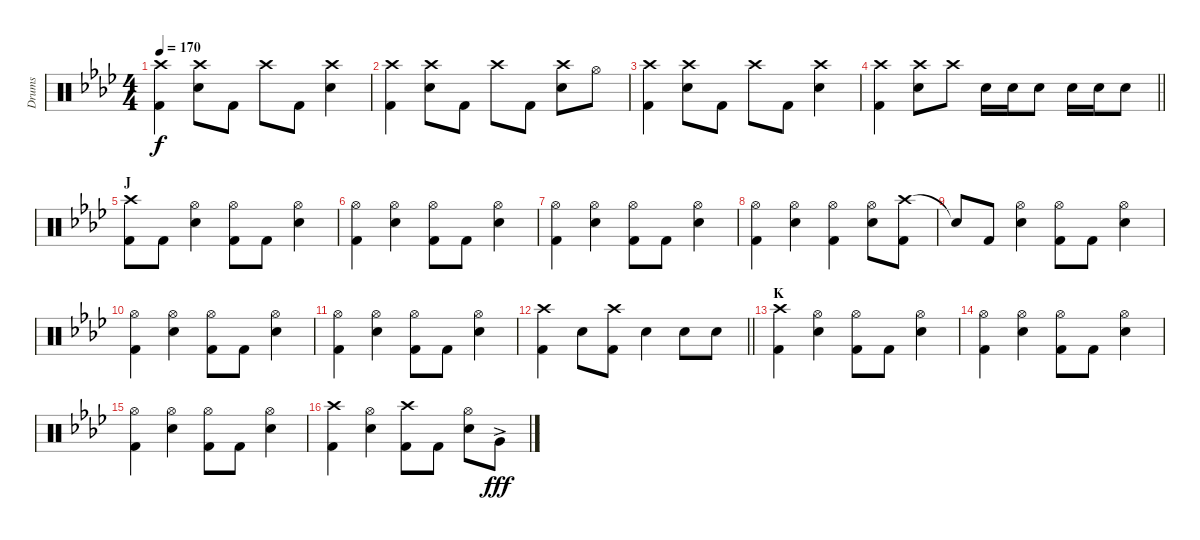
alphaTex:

\track ("Drums" "Drums") {instrument percussion}
\staff {score}
\articulation defaults
\ts (4 4)
\tempo 170
\clef neutral
\ks ab
("Crash high (hit)" "Kick (hit) 2").4{dy f} ("Crash high (hit)" "Snare (hit) 2").8 "Kick (hit) 2".8 "Crash high (hit)".8 "Kick (hit) 2".8 ("Crash high (hit)" "Snare (hit) 2").4 |
("Crash high (hit)" "Kick (hit) 2").4 ("Crash high (hit)" "Snare (hit) 2").8 "Kick (hit) 2".8 "Crash high (hit)".8 "Kick (hit) 2".8 ("Crash high (hit)" "Snare (hit) 2").8 "Hi-Hat (open)".8 |
("Crash high (hit)" "Kick (hit) 2").4 ("Crash high (hit)" "Snare (hit) 2").8 "Kick (hit) 2".8 "Crash high (hit)".8 "Kick (hit) 2".8 ("Crash high (hit)" "Snare (hit) 2").4 |
\barLineRight lightlight
("Crash high (hit)" "Kick (hit) 2").4 ("Crash high (hit)" "Snare (hit) 2").8 "Crash high (hit)".8 "Snare (hit) 2".16 "Snare (hit) 2".16 "Snare (hit) 2".8 "Snare (hit) 2".16 "Snare (hit) 2".16 "Snare (hit) 2".8 |
\section ("" "J")
("Crash high (hit)" "Kick (hit) 2").8 "Kick (hit) 2".8 ("Hi-Hat (open)" "Snare (hit) 2").4 ("Hi-Hat (open)" "Kick (hit) 2").8 "Kick (hit) 2".8 ("Hi-Hat (open)" "Snare (hit) 2").4 |
("Hi-Hat (open)" "Kick (hit) 2").4 ("Hi-Hat (open)" "Snare (hit) 2").4 ("Hi-Hat (open)" "Kick (hit) 2").8 "Kick (hit) 2".8 ("Hi-Hat (open)" "Snare (hit) 2").4 |
("Hi-Hat (open)" "Kick (hit) 2").4 ("Hi-Hat (open)" "Snare (hit) 2").4 ("Hi-Hat (open)" "Kick (hit) 2").8 "Kick (hit) 2".8 ("Hi-Hat (open)" "Snare (hit) 2").4 |
("Hi-Hat (open)" "Kick (hit) 2").4 ("Hi-Hat (open)" "Snare (hit) 2").4 ("Hi-Hat (open)" "Kick (hit) 2").4 ("Hi-Hat (open)" "Snare (hit) 2").8 ("Crash high (hit)" "Kick (hit) 2").8 |
"Snare (hit)"{t}.8 "Kick (hit) 2".8 ("Hi-Hat (open)" "Snare (hit) 2").4 ("Hi-Hat (open)" "Kick (hit) 2").8 "Kick (hit) 2".8 ("Hi-Hat (open)" "Snare (hit) 2").4 |
("Hi-Hat (open)" "Kick (hit) 2").4 ("Hi-Hat (open)" "Snare (hit) 2").4 ("Hi-Hat (open)" "Kick (hit) 2").8 "Kick (hit) 2".8 ("Hi-Hat (open)" "Snare (hit) 2").4 |
("Hi-Hat (open)" "Kick (hit) 2").4 ("Hi-Hat (open)" "Snare (hit) 2").4 ("Hi-Hat (open)" "Kick (hit) 2").8 "Kick (hit) 2".8 ("Hi-Hat (open)" "Snare (hit) 2").4 |
\barLineRight lightlight
("Crash high (hit)" "Kick (hit) 2").4 "Snare (hit) 2".8 ("Crash high (hit)" "Kick (hit) 2").8 "Snare (hit) 2".4 "Snare (hit) 2".8 "Snare (hit) 2".8 |
\section ("" "K")
("Crash high (hit)" "Kick (hit) 2").4 ("Hi-Hat (open)" "Snare (hit) 2").4 ("Hi-Hat (open)" "Kick (hit) 2").8 "Kick (hit) 2".8 ("Hi-Hat (open)" "Snare (hit) 2").4 |
("Hi-Hat (open)" "Kick (hit) 2").4 ("Hi-Hat (open)" "Snare (hit) 2").4 ("Hi-Hat (open)" "Kick (hit) 2").8 "Kick (hit) 2".8 ("Hi-Hat (open)" "Snare (hit) 2").4 |
("Hi-Hat (open)" "Kick (hit) 2").4 ("Hi-Hat (open)" "Snare (hit) 2").4 ("Hi-Hat (open)" "Kick (hit) 2").8 "Kick (hit) 2".8 ("Hi-Hat (open)" "Snare (hit) 2").4 |
("Crash high (hit)" "Kick (hit) 2").4 ("Hi-Hat (open)" "Snare (hit) 2").4 ("Crash high (hit)" "Kick (hit) 2").8 "Kick (hit) 2".8 ("Hi-Hat (open)" "Snare (hit) 2").8 "Very Low Tom (hit)"{ac}.8{dy fff}
